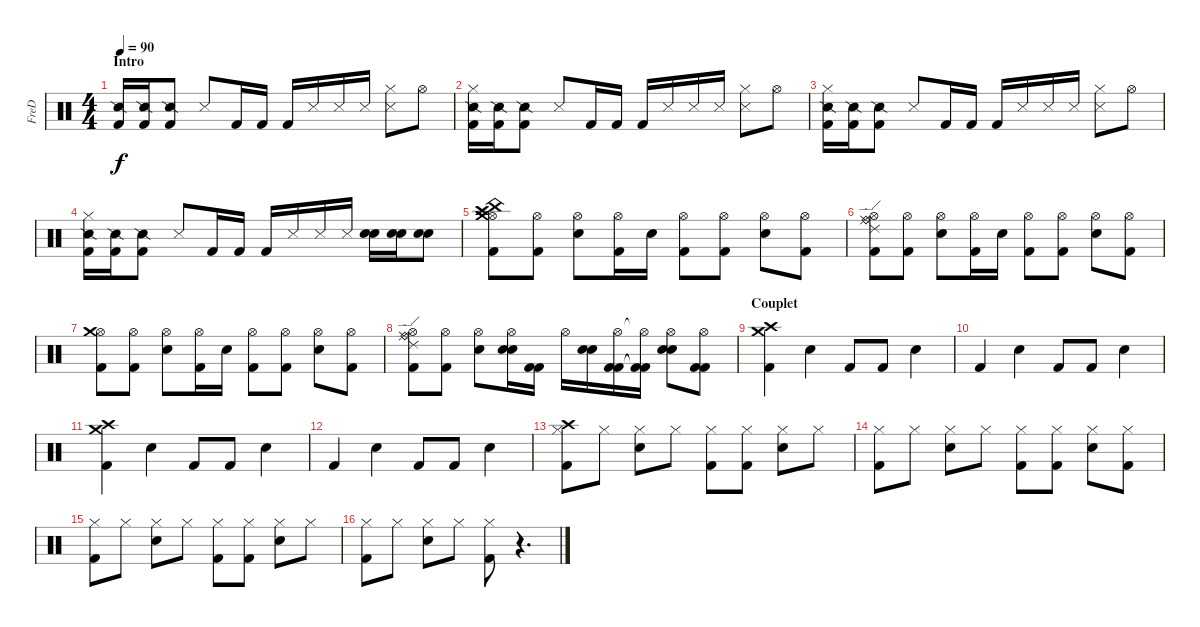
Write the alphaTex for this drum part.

\track ("FreD" "FreD") {instrument percussion}
\staff {score}
\articulation defaults
\ts (4 4)
\section ("" "Intro")
\tempo 90
\clef neutral
\ks c
("Snare (side stick) 2" "Kick (hit) 2").16{dy f} ("Snare (side stick) 2" "Kick (hit) 2").16 ("Snare (side stick) 2" "Kick (hit) 2").8 "Metronome (hit)".8 "Kick (hit) 2".16 "Kick (hit) 2".16 "Kick (hit) 2".16 "Snare (side stick) 3".16 "Metronome (hit)".16 "Snare (side stick) 3".16 ("Hi-Hat (closed)" "Metronome (hit)").8 "Hi-Hat (open)".8 |
("Hi-Hat (closed)" "Snare (side stick) 2" "Kick (hit) 2").16 ("Snare (side stick) 2" "Kick (hit) 2").16 ("Snare (side stick) 2" "Kick (hit) 2").8 "Metronome (hit)".8 "Kick (hit) 2".16 "Kick (hit) 2".16 "Kick (hit) 2".16 "Snare (side stick) 3".16 "Metronome (hit)".16 "Snare (side stick) 3".16 ("Hi-Hat (closed)" "Metronome (hit)").8 "Hi-Hat (open)".8 |
("Hi-Hat (closed)" "Snare (side stick) 2" "Kick (hit) 2").16 ("Snare (side stick) 2" "Kick (hit) 2").16 ("Snare (side stick) 2" "Kick (hit) 2").8 "Metronome (hit)".8 "Kick (hit) 2".16 "Kick (hit) 2".16 "Kick (hit) 2".16 "Snare (side stick) 3".16 "Metronome (hit)".16 "Snare (side stick) 3".16 ("Hi-Hat (closed)" "Metronome (hit)").8 "Hi-Hat (open)".8 |
("Hi-Hat (closed)" "Snare (side stick) 2" "Kick (hit) 2").16 ("Snare (side stick) 2" "Kick (hit) 2").16 ("Snare (side stick) 2" "Kick (hit) 2").8 "Metronome (hit)".8 "Kick (hit) 2".16 "Kick (hit) 2".16 "Kick (hit) 2".16 "Snare (side stick) 3".16 "Metronome (hit)".16 "Snare (side stick) 3".16 ("Electric Snare (hit)" "Electric Snare (hit)").16 ("Electric Snare (hit)" "Electric Snare (hit)").16 ("Electric Snare (hit)" "Electric Snare (hit)").8 |
("China (hit)" "Hi-Hat (open)" "Crash high (hit)" "Crash medium (hit)" "Kick (hit) 2").8 ("Hi-Hat (open)" "Kick (hit) 2").8 ("Hi-Hat (open)" "Electric Snare (hit)").8 ("Hi-Hat (open)" "Kick (hit) 2").16 "Electric Snare (hit)".16 ("Hi-Hat (open)" "Kick (hit) 2").8 ("Hi-Hat (open)" "Kick (hit) 2").8 ("Hi-Hat (open)" "Electric Snare (hit)").8 ("Hi-Hat (open)" "Kick (hit) 2").8 |
("Ride (bell)" "Hi-Hat (open)" "Ride (middle)" "Ride (edge) 2" "Kick (hit) 2").8 ("Hi-Hat (open)" "Kick (hit) 2").8 ("Hi-Hat (open)" "Electric Snare (hit)").8 ("Hi-Hat (open)" "Kick (hit) 2").16 "Electric Snare (hit)".16 ("Hi-Hat (open)" "Kick (hit) 2").8 ("Hi-Hat (open)" "Kick (hit) 2").8 ("Hi-Hat (open)" "Electric Snare (hit)").8 ("Hi-Hat (open)" "Kick (hit) 2").8 |
("Hi-Hat (open)" "Crash medium (hit)" "Kick (hit) 2").8 ("Hi-Hat (open)" "Kick (hit) 2").8 ("Hi-Hat (open)" "Electric Snare (hit)").8 ("Hi-Hat (open)" "Kick (hit) 2").16 "Electric Snare (hit)".16 ("Hi-Hat (open)" "Kick (hit) 2").8 ("Hi-Hat (open)" "Kick (hit) 2").8 ("Hi-Hat (open)" "Electric Snare (hit)").8 ("Hi-Hat (open)" "Kick (hit) 2").8 |
("Ride (bell)" "Hi-Hat (open)" "Ride (middle)" "Ride (edge) 2" "Kick (hit) 2").8 ("Hi-Hat (open)" "Kick (hit) 2").8 ("Hi-Hat (open)" "Electric Snare (hit)").8 ("Hi-Hat (open)" "Electric Snare (hit)" "Electric Snare (hit)").16 ("Kick (hit) 2" "Kick (hit) 2").16 "Hi-Hat (open)".16 ("Electric Snare (hit)" "Electric Snare (hit)").16 ("Hi-Hat (open)" "Kick (hit) 2" "Kick (hit) 2").16 ("Hi-Hat (open)"{t} "Kick (hit) 2"{t} "Kick (hit) 2"{t}).16 ("Hi-Hat (open)" "Electric Snare (hit)" "Electric Snare (hit)").8 ("Hi-Hat (open)" "Kick (hit) 2" "Kick (hit) 2").8 |
\section ("" "Couplet")
("Crash medium (hit)" "Crash high (hit)" "Kick (hit) 2").4 "Electric Snare (hit)".4 "Kick (hit) 2".8 "Kick (hit) 2".8 "Electric Snare (hit)".4 |
"Kick (hit) 2".4 "Electric Snare (hit)".4 "Kick (hit) 2".8 "Kick (hit) 2".8 "Electric Snare (hit)".4 |
("Crash medium (hit)" "Crash high (hit)" "Kick (hit) 2").4 "Electric Snare (hit)".4 "Kick (hit) 2".8 "Kick (hit) 2".8 "Electric Snare (hit)".4 |
"Kick (hit) 2".4 "Electric Snare (hit)".4 "Kick (hit) 2".8 "Kick (hit) 2".8 "Electric Snare (hit)".4 |
("Crash high (hit)" "Hi-Hat (closed)" "Kick (hit) 2").8 "Hi-Hat (closed)".8 ("Hi-Hat (closed)" "Electric Snare (hit)").8 "Hi-Hat (closed)".8 ("Hi-Hat (closed)" "Kick (hit) 2").8 ("Hi-Hat (closed)" "Kick (hit) 2").8 ("Hi-Hat (closed)" "Electric Snare (hit)").8 "Hi-Hat (closed)".8 |
("Hi-Hat (closed)" "Kick (hit) 2").8 "Hi-Hat (closed)".8 ("Hi-Hat (closed)" "Electric Snare (hit)").8 "Hi-Hat (closed)".8 ("Hi-Hat (closed)" "Kick (hit) 2").8 ("Hi-Hat (closed)" "Kick (hit) 2").8 ("Hi-Hat (closed)" "Electric Snare (hit)").8 ("Hi-Hat (closed)" "Kick (hit) 2").8 |
("Hi-Hat (closed)" "Kick (hit) 2").8 "Hi-Hat (closed)".8 ("Hi-Hat (closed)" "Electric Snare (hit)").8 "Hi-Hat (closed)".8 ("Hi-Hat (closed)" "Kick (hit) 2").8 ("Hi-Hat (closed)" "Kick (hit) 2").8 ("Hi-Hat (closed)" "Electric Snare (hit)").8 "Hi-Hat (closed)".8 |
("Hi-Hat (closed)" "Kick (hit) 2").8 "Hi-Hat (closed)".8 ("Hi-Hat (closed)" "Electric Snare (hit)").8 "Hi-Hat (closed)".8 ("Hi-Hat (closed)" "Kick (hit) 2").8 r.4{d}
